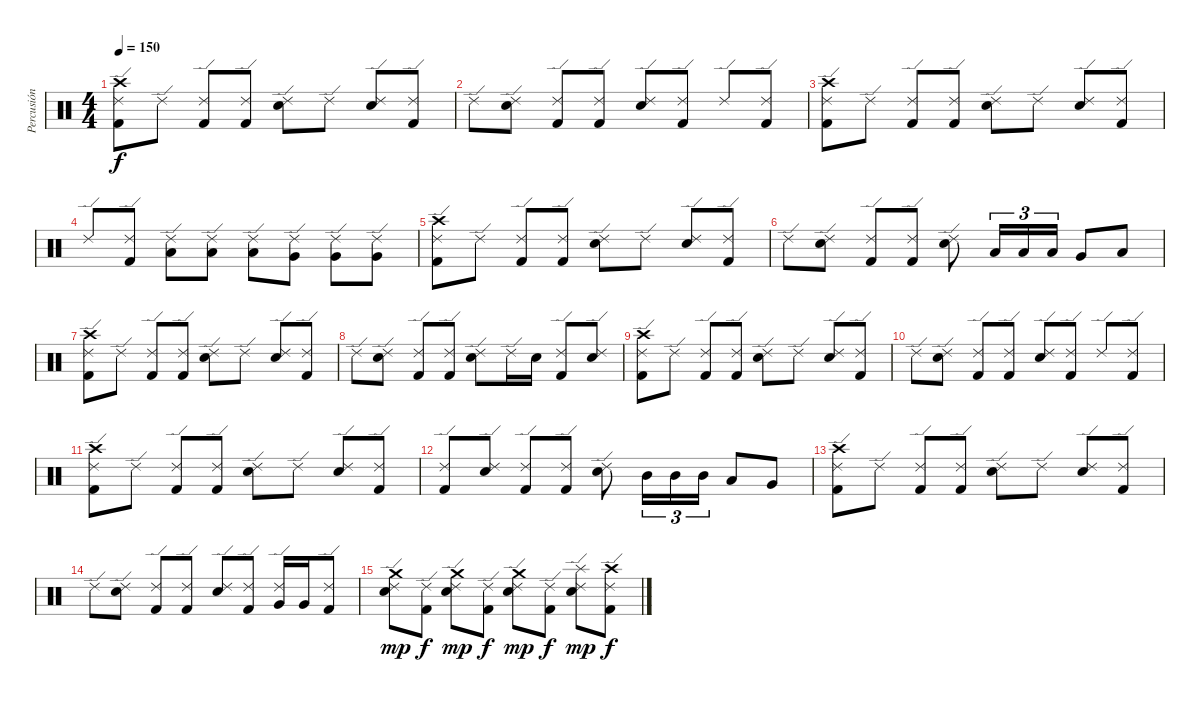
\track ("Percusión" "Percusión") {instrument percussion}
\staff {score}
\articulation defaults
\ts (4 4)
\tempo 150
\clef neutral
\ks c
("Crash high (hit)" "Ride (edge) 2" "Kick (hit) 2").8{dy f} "Ride (edge) 2".8 ("Ride (edge) 2" "Kick (hit) 2").8 ("Ride (edge) 2" "Kick (hit) 2").8 ("Ride (edge) 2" "Snare (hit) 2").8 "Ride (edge) 2".8 ("Ride (edge) 2" "Snare (hit) 2").8 ("Ride (edge) 2" "Kick (hit) 2").8 |
"Ride (edge) 2".8 ("Ride (edge) 2" "Snare (hit) 2").8 ("Ride (edge) 2" "Kick (hit) 2").8 ("Ride (edge) 2" "Kick (hit) 2").8 ("Ride (edge) 2" "Snare (hit) 2").8 ("Ride (edge) 2" "Kick (hit) 2").8 "Ride (edge) 2".8 ("Ride (edge) 2" "Kick (hit) 2").8 |
("Crash high (hit)" "Ride (edge) 2" "Kick (hit) 2").8 "Ride (edge) 2".8 ("Ride (edge) 2" "Kick (hit) 2").8 ("Ride (edge) 2" "Kick (hit) 2").8 ("Ride (edge) 2" "Snare (hit) 2").8 "Ride (edge) 2".8 ("Ride (edge) 2" "Snare (hit) 2").8 ("Ride (edge) 2" "Kick (hit) 2").8 |
"Ride (edge) 2".8 ("Ride (edge) 2" "Kick (hit) 2").8 ("Ride (edge) 2" "Low Tom (hit)").8 ("Ride (edge) 2" "Low Tom (hit)").8 ("Ride (edge) 2" "Low Tom (hit)").8 ("Ride (edge) 2" "Very Low Tom (hit)").8 ("Ride (edge) 2" "Very Low Tom (hit)").8 ("Ride (edge) 2" "Very Low Tom (hit)").8 |
("Crash high (hit)" "Ride (edge) 2" "Kick (hit) 2").8 "Ride (edge) 2".8 ("Ride (edge) 2" "Kick (hit) 2").8 ("Ride (edge) 2" "Kick (hit) 2").8 ("Ride (edge) 2" "Snare (hit) 2").8 "Ride (edge) 2".8 ("Ride (edge) 2" "Snare (hit) 2").8 ("Ride (edge) 2" "Kick (hit) 2").8 |
"Ride (edge) 2".8 ("Ride (edge) 2" "Snare (hit) 2").8 ("Ride (edge) 2" "Kick (hit) 2").8 ("Ride (edge) 2" "Kick (hit) 2").8 ("Ride (edge) 2" "Snare (hit) 2").8 "Low Tom (hit)".16{tu (3 2)} "Low Tom (hit)".16{tu (3 2)} "Low Tom (hit)".16{tu (3 2)} "Very Low Tom (hit)".8 "Low Floor Tom (hit)".8 |
("Crash high (hit)" "Ride (edge) 2" "Kick (hit) 2").8 "Ride (edge) 2".8 ("Ride (edge) 2" "Kick (hit) 2").8 ("Ride (edge) 2" "Kick (hit) 2").8 ("Ride (edge) 2" "Snare (hit) 2").8 "Ride (edge) 2".8 ("Ride (edge) 2" "Snare (hit) 2").8 ("Ride (edge) 2" "Kick (hit) 2").8 |
"Ride (edge) 2".8 ("Ride (edge) 2" "Snare (hit) 2").8 ("Ride (edge) 2" "Kick (hit) 2").8 ("Ride (edge) 2" "Kick (hit) 2").8 ("Ride (edge) 2" "Snare (hit) 2").8 "Ride (edge) 2".16 "Snare (hit) 2".16 ("Ride (edge) 2" "Kick (hit) 2").8 ("Ride (edge) 2" "Snare (hit) 2").8 |
("Crash high (hit)" "Ride (edge) 2" "Kick (hit) 2").8 "Ride (edge) 2".8 ("Ride (edge) 2" "Kick (hit) 2").8 ("Ride (edge) 2" "Kick (hit) 2").8 ("Ride (edge) 2" "Snare (hit) 2").8 "Ride (edge) 2".8 ("Ride (edge) 2" "Snare (hit) 2").8 ("Ride (edge) 2" "Kick (hit) 2").8 |
"Ride (edge) 2".8 ("Ride (edge) 2" "Snare (hit) 2").8 ("Ride (edge) 2" "Kick (hit) 2").8 ("Ride (edge) 2" "Kick (hit) 2").8 ("Ride (edge) 2" "Snare (hit) 2").8 ("Ride (edge) 2" "Kick (hit) 2").8 "Ride (edge) 2".8 ("Ride (edge) 2" "Kick (hit) 2").8 |
("Crash high (hit)" "Ride (edge) 2" "Kick (hit) 2").8 "Ride (edge) 2".8 ("Ride (edge) 2" "Kick (hit) 2").8 ("Ride (edge) 2" "Kick (hit) 2").8 ("Ride (edge) 2" "Snare (hit) 2").8 "Ride (edge) 2".8 ("Ride (edge) 2" "Snare (hit) 2").8 ("Ride (edge) 2" "Kick (hit) 2").8 |
("Ride (edge) 2" "Kick (hit) 2").8 ("Ride (edge) 2" "Snare (hit) 2").8 ("Ride (edge) 2" "Kick (hit) 2").8 ("Ride (edge) 2" "Kick (hit) 2").8 ("Ride (edge) 2" "Snare (hit) 2").8 "Mid Tom (hit)".16{tu (3 2)} "Mid Tom (hit)".16{tu (3 2)} "Mid Tom (hit)".16{tu (3 2)} "Low Tom (hit)".8 "Very Low Tom (hit)".8 |
("Crash high (hit)" "Ride (edge) 2" "Kick (hit) 2").8 "Ride (edge) 2".8 ("Ride (edge) 2" "Kick (hit) 2").8 ("Ride (edge) 2" "Kick (hit) 2").8 ("Ride (edge) 2" "Snare (hit) 2").8 "Ride (edge) 2".8 ("Ride (edge) 2" "Snare (hit) 2").8 ("Ride (edge) 2" "Kick (hit) 2").8 |
"Ride (edge) 2".8 ("Ride (edge) 2" "Snare (hit) 2").8 ("Ride (edge) 2" "Kick (hit) 2").8 ("Ride (edge) 2" "Kick (hit) 2").8 ("Ride (edge) 2" "Snare (hit) 2").8 ("Ride (edge) 2" "Kick (hit) 2").8 ("Ride (edge) 2" "Very Low Tom (hit)").16 "Very Low Tom (hit)".16 ("Ride (edge) 2" "Kick (hit) 2").8 |
("Crash medium (hit)" "Ride (edge) 2" "Snare (hit) 2").8{dy mp} ("Ride (edge) 2" "Kick (hit) 2").8{dy f} ("Crash medium (hit)" "Ride (edge) 2" "Snare (hit) 2").8{dy mp} ("Ride (edge) 2" "Kick (hit) 2").8{dy f} ("Crash medium (hit)" "Ride (edge) 2" "Snare (hit) 2").8{dy mp} ("Ride (edge) 2" "Kick (hit) 2").8{dy f} ("Splash (hit)" "Ride (edge) 2" "Snare (hit) 2").8{dy mp} ("Crash high (hit)" "Ride (edge) 2" "Kick (hit) 2").8{dy f}
